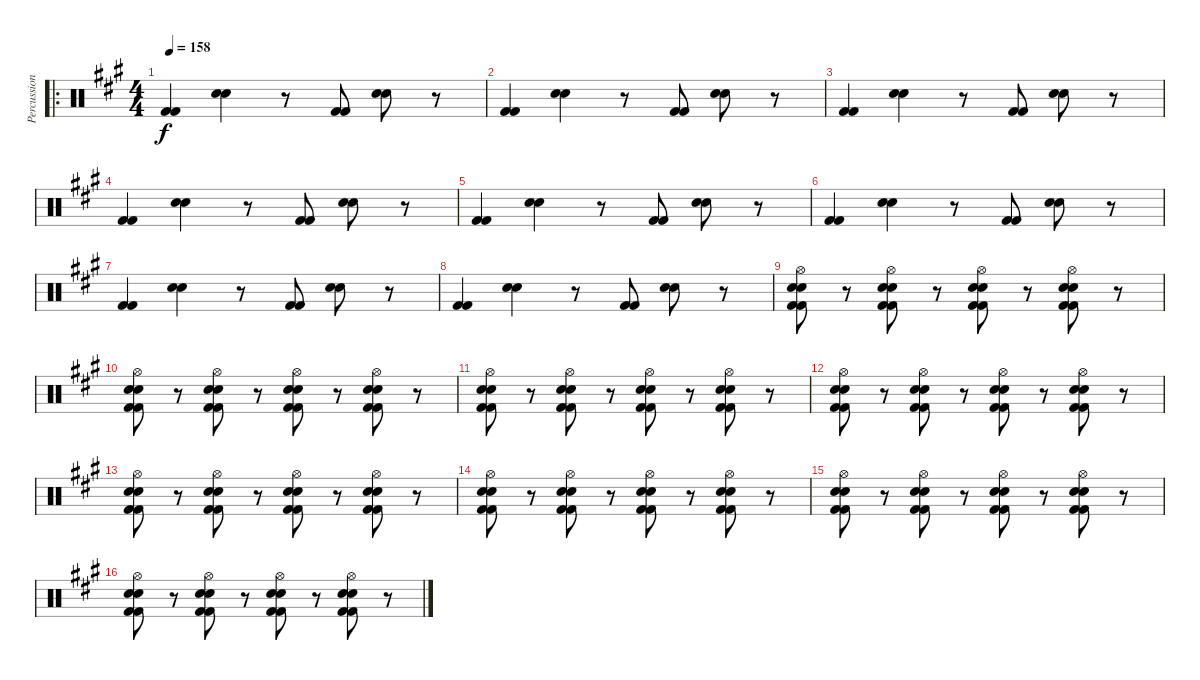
\track ("Percussion" "Percussion") {instrument percussion}
\staff {score}
\articulation defaults
\ro
\ts (4 4)
\tempo 158
\clef neutral
\ks a
("Kick (hit) 2" "Kick (hit) 2").4{dy f} ("Snare (hit) 2" "Snare (hit) 2").4 r.8 ("Kick (hit) 2" "Kick (hit) 2").8 ("Snare (hit) 2" "Snare (hit) 2").8 r.8 |
("Kick (hit) 2" "Kick (hit) 2").4 ("Snare (hit) 2" "Snare (hit) 2").4 r.8 ("Kick (hit) 2" "Kick (hit) 2").8 ("Snare (hit) 2" "Snare (hit) 2").8 r.8 |
("Kick (hit) 2" "Kick (hit) 2").4 ("Snare (hit) 2" "Snare (hit) 2").4 r.8 ("Kick (hit) 2" "Kick (hit) 2").8 ("Snare (hit) 2" "Snare (hit) 2").8 r.8 |
("Kick (hit) 2" "Kick (hit) 2").4 ("Snare (hit) 2" "Snare (hit) 2").4 r.8 ("Kick (hit) 2" "Kick (hit) 2").8 ("Snare (hit) 2" "Snare (hit) 2").8 r.8 |
("Kick (hit) 2" "Kick (hit) 2").4 ("Snare (hit) 2" "Snare (hit) 2").4 r.8 ("Kick (hit) 2" "Kick (hit) 2").8 ("Snare (hit) 2" "Snare (hit) 2").8 r.8 |
("Kick (hit) 2" "Kick (hit) 2").4 ("Snare (hit) 2" "Snare (hit) 2").4 r.8 ("Kick (hit) 2" "Kick (hit) 2").8 ("Snare (hit) 2" "Snare (hit) 2").8 r.8 |
("Kick (hit) 2" "Kick (hit) 2").4 ("Snare (hit) 2" "Snare (hit) 2").4 r.8 ("Kick (hit) 2" "Kick (hit) 2").8 ("Snare (hit) 2" "Snare (hit) 2").8 r.8 |
("Kick (hit) 2" "Kick (hit) 2").4 ("Snare (hit) 2" "Snare (hit) 2").4 r.8 ("Kick (hit) 2" "Kick (hit) 2").8 ("Snare (hit) 2" "Snare (hit) 2").8 r.8 |
("Electric Snare (hit)" "Kick (hit) 2" "Electric Snare (hit)" "Kick (hit) 2" "Hi-Hat (open)").8 r.8 ("Electric Snare (hit)" "Kick (hit) 2" "Electric Snare (hit)" "Kick (hit) 2" "Hi-Hat (open)").8 r.8 ("Electric Snare (hit)" "Kick (hit) 2" "Electric Snare (hit)" "Kick (hit) 2" "Hi-Hat (open)").8 r.8 ("Kick (hit) 2" "Electric Snare (hit)" "Electric Snare (hit)" "Kick (hit) 2" "Hi-Hat (open)").8 r.8 |
("Electric Snare (hit)" "Kick (hit) 2" "Electric Snare (hit)" "Kick (hit) 2" "Hi-Hat (open)").8 r.8 ("Electric Snare (hit)" "Kick (hit) 2" "Electric Snare (hit)" "Kick (hit) 2" "Hi-Hat (open)").8 r.8 ("Electric Snare (hit)" "Kick (hit) 2" "Electric Snare (hit)" "Kick (hit) 2" "Hi-Hat (open)").8 r.8 ("Kick (hit) 2" "Electric Snare (hit)" "Electric Snare (hit)" "Kick (hit) 2" "Hi-Hat (open)").8 r.8 |
("Electric Snare (hit)" "Kick (hit) 2" "Electric Snare (hit)" "Kick (hit) 2" "Hi-Hat (open)").8 r.8 ("Electric Snare (hit)" "Kick (hit) 2" "Electric Snare (hit)" "Kick (hit) 2" "Hi-Hat (open)").8 r.8 ("Electric Snare (hit)" "Kick (hit) 2" "Electric Snare (hit)" "Kick (hit) 2" "Hi-Hat (open)").8 r.8 ("Kick (hit) 2" "Electric Snare (hit)" "Electric Snare (hit)" "Kick (hit) 2" "Hi-Hat (open)").8 r.8 |
("Electric Snare (hit)" "Kick (hit) 2" "Electric Snare (hit)" "Kick (hit) 2" "Hi-Hat (open)").8 r.8 ("Electric Snare (hit)" "Kick (hit) 2" "Electric Snare (hit)" "Kick (hit) 2" "Hi-Hat (open)").8 r.8 ("Electric Snare (hit)" "Kick (hit) 2" "Electric Snare (hit)" "Kick (hit) 2" "Hi-Hat (open)").8 r.8 ("Kick (hit) 2" "Electric Snare (hit)" "Electric Snare (hit)" "Kick (hit) 2" "Hi-Hat (open)").8 r.8 |
("Electric Snare (hit)" "Kick (hit) 2" "Electric Snare (hit)" "Kick (hit) 2" "Hi-Hat (open)").8 r.8 ("Electric Snare (hit)" "Kick (hit) 2" "Electric Snare (hit)" "Kick (hit) 2" "Hi-Hat (open)").8 r.8 ("Electric Snare (hit)" "Kick (hit) 2" "Electric Snare (hit)" "Kick (hit) 2" "Hi-Hat (open)").8 r.8 ("Kick (hit) 2" "Electric Snare (hit)" "Electric Snare (hit)" "Kick (hit) 2" "Hi-Hat (open)").8 r.8 |
("Electric Snare (hit)" "Kick (hit) 2" "Electric Snare (hit)" "Kick (hit) 2" "Hi-Hat (open)").8 r.8 ("Electric Snare (hit)" "Kick (hit) 2" "Electric Snare (hit)" "Kick (hit) 2" "Hi-Hat (open)").8 r.8 ("Electric Snare (hit)" "Kick (hit) 2" "Electric Snare (hit)" "Kick (hit) 2" "Hi-Hat (open)").8 r.8 ("Kick (hit) 2" "Electric Snare (hit)" "Electric Snare (hit)" "Kick (hit) 2" "Hi-Hat (open)").8 r.8 |
("Electric Snare (hit)" "Kick (hit) 2" "Electric Snare (hit)" "Kick (hit) 2" "Hi-Hat (open)").8 r.8 ("Electric Snare (hit)" "Kick (hit) 2" "Electric Snare (hit)" "Kick (hit) 2" "Hi-Hat (open)").8 r.8 ("Electric Snare (hit)" "Kick (hit) 2" "Electric Snare (hit)" "Kick (hit) 2" "Hi-Hat (open)").8 r.8 ("Kick (hit) 2" "Electric Snare (hit)" "Electric Snare (hit)" "Kick (hit) 2" "Hi-Hat (open)").8 r.8 |
("Electric Snare (hit)" "Kick (hit) 2" "Electric Snare (hit)" "Kick (hit) 2" "Hi-Hat (open)").8 r.8 ("Electric Snare (hit)" "Kick (hit) 2" "Electric Snare (hit)" "Kick (hit) 2" "Hi-Hat (open)").8 r.8 ("Electric Snare (hit)" "Kick (hit) 2" "Electric Snare (hit)" "Kick (hit) 2" "Hi-Hat (open)").8 r.8 ("Kick (hit) 2" "Electric Snare (hit)" "Electric Snare (hit)" "Kick (hit) 2" "Hi-Hat (open)").8 r.8
